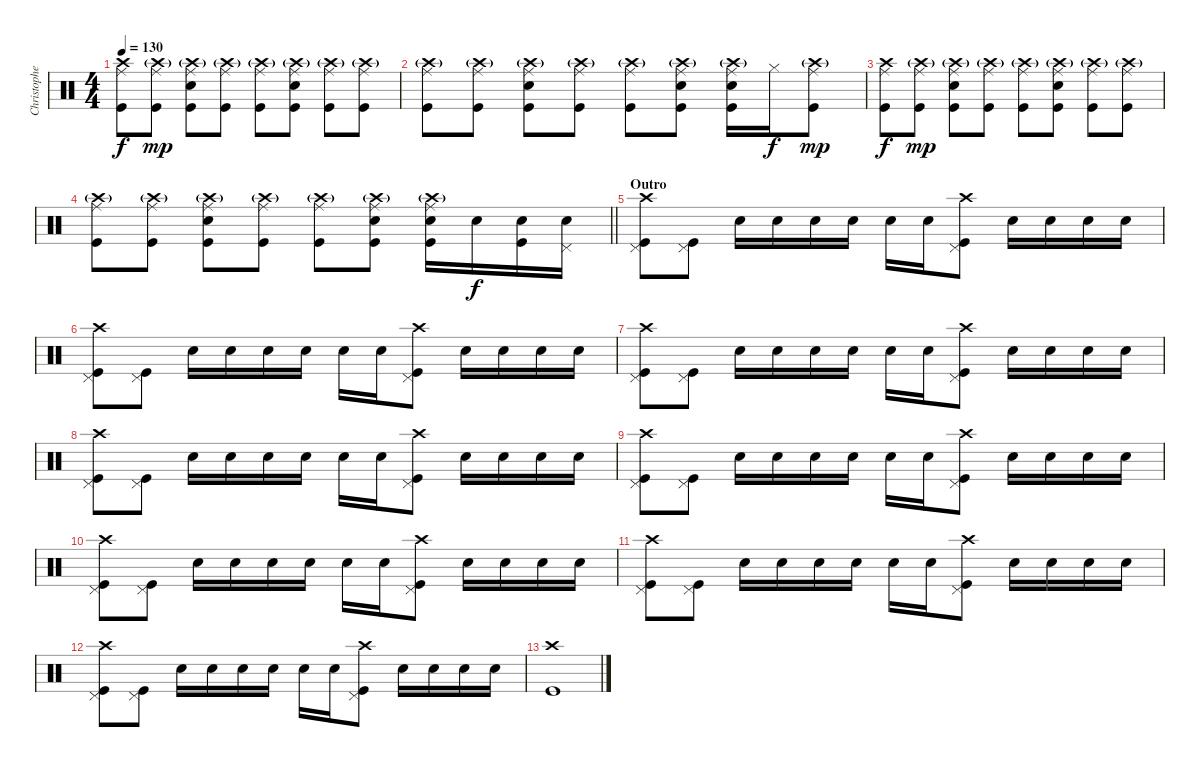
\track ("Christopher - Drums" "Christophe") {instrument percussion}
\staff {score}
\articulation defaults
\ts (4 4)
\tempo 130
\clef neutral
\ks c
("Crash high (hit)" "Ride (middle)" "Kick (hit)").8{dy f} ("Crash high (hit)"{g} "Ride (middle)" "Kick (hit)").8{dy mp} ("Crash high (hit)"{g} "Ride (middle)" "Snare (hit) 2" "Kick (hit)").8 ("Crash high (hit)"{g} "Ride (middle)" "Kick (hit)").8 ("Crash high (hit)"{g} "Ride (middle)" "Kick (hit)").8 ("Crash high (hit)"{g} "Ride (middle)" "Snare (hit) 2" "Kick (hit)").8 ("Crash high (hit)"{g} "Ride (middle)" "Kick (hit)").8 ("Crash high (hit)"{g} "Ride (middle)" "Kick (hit)").8 |
("Crash high (hit)"{g} "Ride (middle)" "Kick (hit)").8 ("Crash high (hit)"{g} "Ride (middle)" "Kick (hit)").8 ("Crash high (hit)"{g} "Ride (middle)" "Snare (hit) 2" "Kick (hit)").8 ("Crash high (hit)"{g} "Ride (middle)" "Kick (hit)").8 ("Crash high (hit)"{g} "Ride (middle)" "Kick (hit)").8 ("Crash high (hit)"{g} "Ride (middle)" "Snare (hit) 2" "Kick (hit)").8 ("Crash high (hit)"{g} "Ride (middle)" "Snare (hit) 2" "Kick (hit)").16 "Hi-Hat (closed)".16{dy f} ("Crash high (hit)"{g} "Ride (middle)" "Kick (hit)").8{dy mp} |
("Crash high (hit)" "Ride (middle)" "Kick (hit)").8{dy f} ("Crash high (hit)"{g} "Ride (middle)" "Kick (hit)").8{dy mp} ("Crash high (hit)"{g} "Ride (middle)" "Snare (hit) 2" "Kick (hit)").8 ("Crash high (hit)"{g} "Ride (middle)" "Kick (hit)").8 ("Crash high (hit)"{g} "Ride (middle)" "Kick (hit)").8 ("Crash high (hit)"{g} "Ride (middle)" "Snare (hit) 2" "Kick (hit)").8 ("Crash high (hit)"{g} "Ride (middle)" "Kick (hit)").8 ("Crash high (hit)"{g} "Ride (middle)" "Kick (hit)").8 |
\barLineRight lightlight
("Crash high (hit)"{g} "Ride (middle)" "Kick (hit)").8 ("Crash high (hit)"{g} "Ride (middle)" "Kick (hit)").8 ("Crash high (hit)"{g} "Ride (middle)" "Snare (hit) 2" "Kick (hit)").8 ("Crash high (hit)"{g} "Ride (middle)" "Kick (hit)").8 ("Crash high (hit)"{g} "Ride (middle)" "Kick (hit)").8 ("Crash high (hit)"{g} "Ride (middle)" "Snare (hit) 2" "Kick (hit)").8 ("Crash high (hit)"{g} "Ride (middle)" "Snare (hit) 2" "Kick (hit)").16 "Snare (hit) 2".16{dy f} ("Snare (hit) 2" "Kick (hit)").16 ("Pedal Hi-Hat (hit)" "Snare (hit) 2").16 |
\section ("" "Outro")
("Crash high (hit)" "Pedal Hi-Hat (hit)" "Kick (hit)").8 ("Pedal Hi-Hat (hit)" "Kick (hit)").8 "Snare (hit) 2".16 "Snare (hit) 2".16 "Snare (hit) 2".16 "Snare (hit) 2".16 "Snare (hit) 2".16 "Snare (hit) 2".16 ("Crash high (hit)" "Pedal Hi-Hat (hit)" "Kick (hit)").8 "Snare (hit) 2".16 "Snare (hit) 2".16 "Snare (hit) 2".16 "Snare (hit) 2".16 |
("Crash high (hit)" "Pedal Hi-Hat (hit)" "Kick (hit)").8 ("Pedal Hi-Hat (hit)" "Kick (hit)").8 "Snare (hit) 2".16 "Snare (hit) 2".16 "Snare (hit) 2".16 "Snare (hit) 2".16 "Snare (hit) 2".16 "Snare (hit) 2".16 ("Crash high (hit)" "Pedal Hi-Hat (hit)" "Kick (hit)").8 "Snare (hit) 2".16 "Snare (hit) 2".16 "Snare (hit) 2".16 "Snare (hit) 2".16 |
("Crash high (hit)" "Pedal Hi-Hat (hit)" "Kick (hit)").8 ("Pedal Hi-Hat (hit)" "Kick (hit)").8 "Snare (hit) 2".16 "Snare (hit) 2".16 "Snare (hit) 2".16 "Snare (hit) 2".16 "Snare (hit) 2".16 "Snare (hit) 2".16 ("Crash high (hit)" "Pedal Hi-Hat (hit)" "Kick (hit)").8 "Snare (hit) 2".16 "Snare (hit) 2".16 "Snare (hit) 2".16 "Snare (hit) 2".16 |
("Crash high (hit)" "Pedal Hi-Hat (hit)" "Kick (hit)").8 ("Pedal Hi-Hat (hit)" "Kick (hit)").8 "Snare (hit) 2".16 "Snare (hit) 2".16 "Snare (hit) 2".16 "Snare (hit) 2".16 "Snare (hit) 2".16 "Snare (hit) 2".16 ("Crash high (hit)" "Pedal Hi-Hat (hit)" "Kick (hit)").8 "Snare (hit) 2".16 "Snare (hit) 2".16 "Snare (hit) 2".16 "Snare (hit) 2".16 |
("Crash high (hit)" "Pedal Hi-Hat (hit)" "Kick (hit)").8 ("Pedal Hi-Hat (hit)" "Kick (hit)").8 "Snare (hit) 2".16 "Snare (hit) 2".16 "Snare (hit) 2".16 "Snare (hit) 2".16 "Snare (hit) 2".16 "Snare (hit) 2".16 ("Crash high (hit)" "Pedal Hi-Hat (hit)" "Kick (hit)").8 "Snare (hit) 2".16 "Snare (hit) 2".16 "Snare (hit) 2".16 "Snare (hit) 2".16 |
("Crash high (hit)" "Pedal Hi-Hat (hit)" "Kick (hit)").8 ("Pedal Hi-Hat (hit)" "Kick (hit)").8 "Snare (hit) 2".16 "Snare (hit) 2".16 "Snare (hit) 2".16 "Snare (hit) 2".16 "Snare (hit) 2".16 "Snare (hit) 2".16 ("Crash high (hit)" "Pedal Hi-Hat (hit)" "Kick (hit)").8 "Snare (hit) 2".16 "Snare (hit) 2".16 "Snare (hit) 2".16 "Snare (hit) 2".16 |
("Crash high (hit)" "Pedal Hi-Hat (hit)" "Kick (hit)").8 ("Pedal Hi-Hat (hit)" "Kick (hit)").8 "Snare (hit) 2".16 "Snare (hit) 2".16 "Snare (hit) 2".16 "Snare (hit) 2".16 "Snare (hit) 2".16 "Snare (hit) 2".16 ("Crash high (hit)" "Pedal Hi-Hat (hit)" "Kick (hit)").8 "Snare (hit) 2".16 "Snare (hit) 2".16 "Snare (hit) 2".16 "Snare (hit) 2".16 |
("Crash high (hit)" "Pedal Hi-Hat (hit)" "Kick (hit)").8 ("Pedal Hi-Hat (hit)" "Kick (hit)").8 "Snare (hit) 2".16 "Snare (hit) 2".16 "Snare (hit) 2".16 "Snare (hit) 2".16 "Snare (hit) 2".16 "Snare (hit) 2".16 ("Crash high (hit)" "Pedal Hi-Hat (hit)" "Kick (hit)").8 "Snare (hit) 2".16 "Snare (hit) 2".16 "Snare (hit) 2".16 "Snare (hit) 2".16 |
("Crash high (hit)" "Kick (hit)").1
